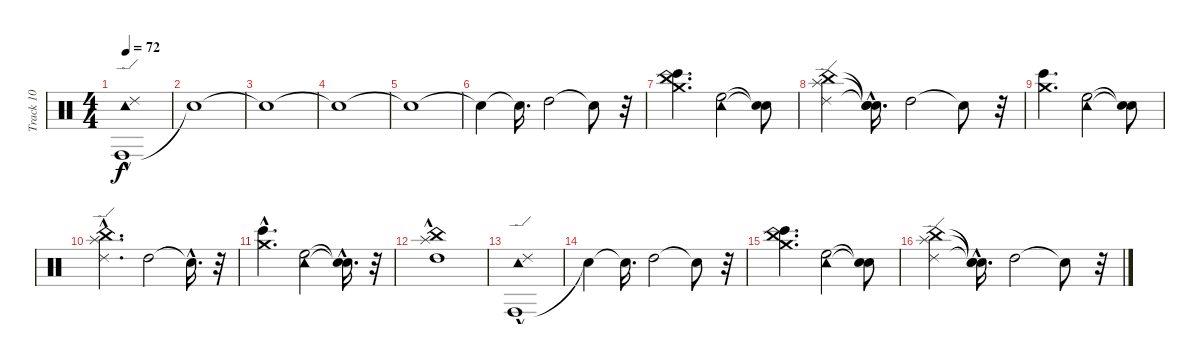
\track ("Track 10" "Track 10") {instrument percussion}
\staff {score}
\articulation defaults
\ts (4 4)
\tempo 72
\clef neutral
\ks c
("Conga high (hit)"{hac} "Tambourine (hit)"{hac} "Ride (edge) 2").1{dy f} |
"Snare (hit)"{t}.1 |
"Snare (hit)"{t}.1 |
"Snare (hit)"{t}.1 |
"Snare (hit)"{t}.1 |
"Snare (hit)"{t}.4 "Snare (hit)"{t}.16{d} "High Tom (hit)".2 "Snare (hit)"{t}.8 r.32 |
("Bongo High (hit)" "Crash medium (hit)" "China (hit)").4{d} ("High Floor Tom (hit)" "Tambourine (hit)").2 ("Snare (hit)"{t} "Snare (hit)"{t}).8 |
("Splash (hit)" "China (hit)" "Ride (edge) 2").4 ("Snare (hit)"{hac t} "Snare (hit)"{t} "Snare (hit)"{hac t}).16{d} "High Tom (hit)".2 "Snare (hit)"{t}.8 r.32 |
("Bongo High (hit)" "Crash medium (hit)").4{d} ("High Floor Tom (hit)" "Tambourine (hit)").2 ("Snare (hit)"{t} "Snare (hit)"{t}).8 |
("China (hit)" "Splash (hit)"{hac} "Ride (edge) 2").4{d} "High Tom (hit)".2 "Snare (hit)"{hac t}.16{d} r.32 |
("Bongo High (hit)"{hac} "Crash medium (hit)").4{d} ("High Floor Tom (hit)" "Tambourine (hit)").2 ("Snare (hit)"{hac t} "Snare (hit)"{hac t}).16{d} r.32 |
("High Tom (hit)"{hac} "China (hit)" "Splash (hit)").1 |
("Conga high (hit)"{hac} "Tambourine (hit)"{hac} "Ride (edge) 2").1 |
"Snare (hit)"{t}.4 "Snare (hit)"{t}.16{d} "High Tom (hit)".2 "Snare (hit)"{t}.8 r.32 |
("Bongo High (hit)" "Crash medium (hit)" "China (hit)").4{d} ("High Floor Tom (hit)" "Tambourine (hit)").2 ("Snare (hit)"{t} "Snare (hit)"{t}).8 |
("Splash (hit)" "China (hit)" "Ride (edge) 2").4 ("Snare (hit)"{hac t} "Snare (hit)"{t} "Snare (hit)"{hac t}).16{d} "High Tom (hit)".2 "Snare (hit)"{t}.8 r.32
